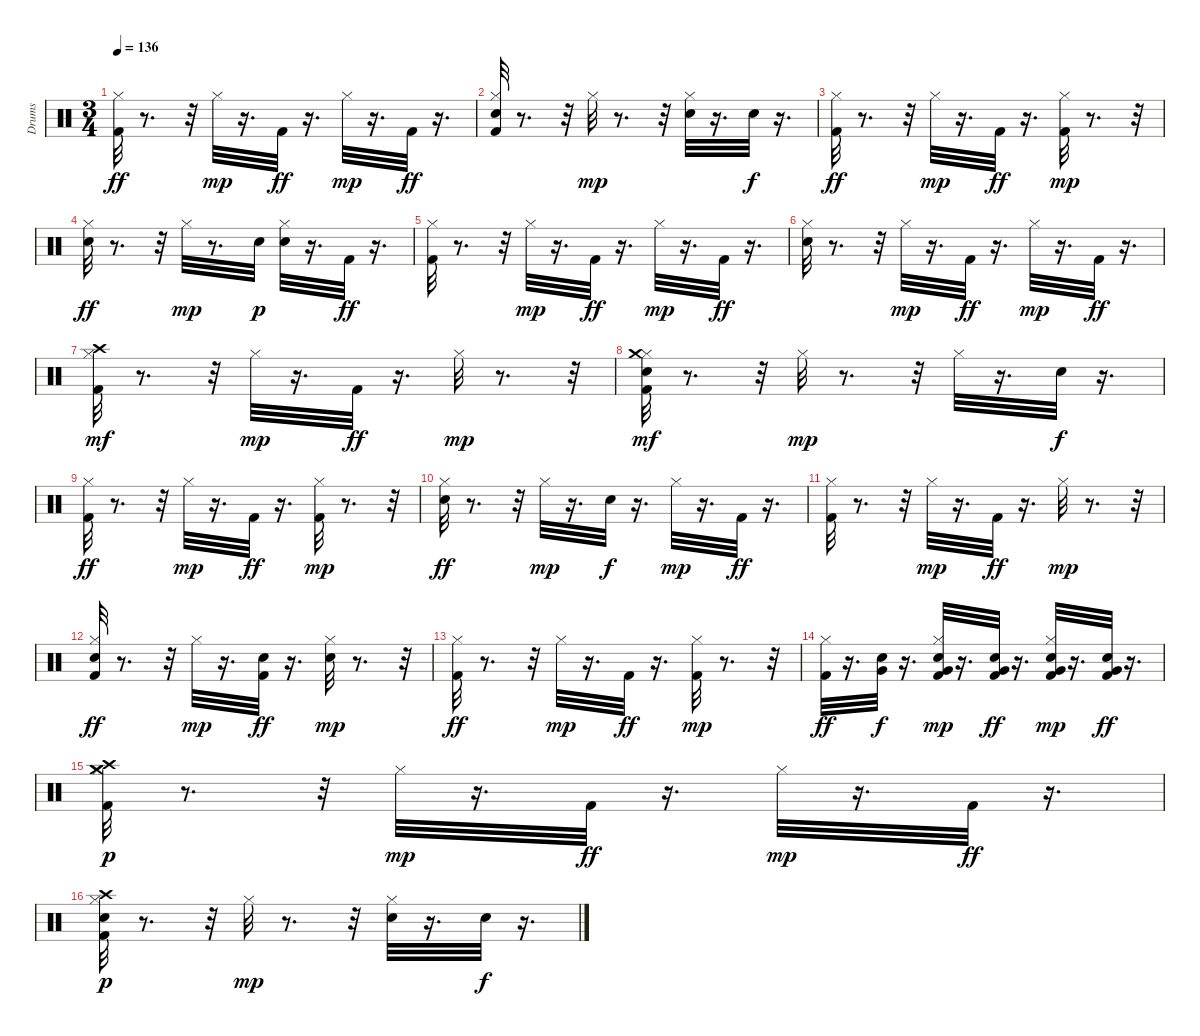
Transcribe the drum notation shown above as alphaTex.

\track ("Drums  " "Drums  ") {instrument percussion}
\staff {score}
\articulation defaults
\ts (3 4)
\tempo 136
\clef neutral
\ks c
("Kick (hit) 2" "Hi-Hat (closed)").32{dy ff} r.8{d} r.32 "Hi-Hat (closed)".32{dy mp} r.16{d} "Kick (hit) 2".32{dy ff} r.16{d} "Hi-Hat (closed)".32{dy mp} r.16{d} "Kick (hit) 2".32{dy ff} r.16{d} |
("Kick (hit) 2" "Snare (hit) 2" "Hi-Hat (closed)").32 r.8{d} r.32 "Hi-Hat (closed)".32{dy mp} r.8{d} r.32 ("Snare (hit) 2" "Hi-Hat (closed)").32 r.16{d} "Snare (hit) 2".32{dy f} r.16{d} |
("Kick (hit) 2" "Hi-Hat (closed)").32{dy ff} r.8{d} r.32 "Hi-Hat (closed)".32{dy mp} r.16{d} "Kick (hit) 2".32{dy ff} r.16{d} ("Kick (hit) 2" "Hi-Hat (closed)").32{dy mp} r.8{d} r.32 |
("Snare (hit) 2" "Hi-Hat (closed)").32{dy ff} r.8{d} r.32 "Hi-Hat (closed)".32{dy mp} r.8{d} "Snare (hit) 2".32{dy p} ("Hi-Hat (closed)" "Snare (hit) 2").32 r.16{d} "Kick (hit) 2".32{dy ff} r.16{d} |
("Kick (hit) 2" "Hi-Hat (closed)").32 r.8{d} r.32 "Hi-Hat (closed)".32{dy mp} r.16{d} "Kick (hit) 2".32{dy ff} r.16{d} "Hi-Hat (closed)".32{dy mp} r.16{d} "Kick (hit) 2".32{dy ff} r.16{d} |
("Snare (hit) 2" "Hi-Hat (closed)").32 r.8{d} r.32 "Hi-Hat (closed)".32{dy mp} r.16{d} "Kick (hit) 2".32{dy ff} r.16{d} "Hi-Hat (closed)".32{dy mp} r.16{d} "Kick (hit) 2".32{dy ff} r.16{d} |
("Kick (hit) 2" "Hi-Hat (closed)" "Crash high (hit)").32{dy mf} r.8{d} r.32 "Hi-Hat (closed)".32{dy mp} r.16{d} "Kick (hit) 2".32{dy ff} r.16{d} "Hi-Hat (closed)".32{dy mp} r.8{d} r.32 |
("Snare (hit) 2" "Kick (hit) 2" "Hi-Hat (closed)" "Crash medium (hit)").32{dy mf} r.8{d} r.32 "Hi-Hat (closed)".32{dy mp} r.8{d} r.32 "Hi-Hat (closed)".32 r.16{d} "Snare (hit) 2".32{dy f} r.16{d} |
("Kick (hit) 2" "Hi-Hat (closed)").32{dy ff} r.8{d} r.32 "Hi-Hat (closed)".32{dy mp} r.16{d} "Kick (hit) 2".32{dy ff} r.16{d} ("Kick (hit) 2" "Hi-Hat (closed)").32{dy mp} r.8{d} r.32 |
("Snare (hit) 2" "Hi-Hat (closed)").32{dy ff} r.8{d} r.32 "Hi-Hat (closed)".32{dy mp} r.16{d} "Snare (hit) 2".32{dy f} r.16{d} "Hi-Hat (closed)".32{dy mp} r.16{d} "Kick (hit) 2".32{dy ff} r.16{d} |
("Kick (hit) 2" "Hi-Hat (closed)").32 r.8{d} r.32 "Hi-Hat (closed)".32{dy mp} r.16{d} "Kick (hit) 2".32{dy ff} r.16{d} "Hi-Hat (closed)".32{dy mp} r.8{d} r.32 |
("Kick (hit) 2" "Snare (hit) 2" "Hi-Hat (closed)").32{dy ff} r.8{d} r.32 "Hi-Hat (closed)".32{dy mp} r.16{d} ("Kick (hit) 2" "Snare (hit) 2").32{dy ff} r.16{d} ("Snare (hit) 2" "Hi-Hat (closed)").32{dy mp} r.8{d} r.32 |
("Kick (hit) 2" "Hi-Hat (closed)").32{dy ff} r.8{d} r.32 "Hi-Hat (closed)".32{dy mp} r.16{d} "Kick (hit) 2".32{dy ff} r.16{d} ("Kick (hit) 2" "Hi-Hat (closed)").32{dy mp} r.8{d} r.32 |
("Kick (hit) 2" "Hi-Hat (closed)").32{dy ff} r.16{d} ("Snare (hit) 2" "Very Low Tom (hit)").32{dy f} r.16{d} ("Kick (hit) 2" "Snare (hit) 2" "Very Low Tom (hit)" "Hi-Hat (closed)").32{dy mp} r.16{d} ("Kick (hit) 2" "Snare (hit) 2" "Very Low Tom (hit)").32{dy ff} r.16{d} ("Kick (hit) 2" "Snare (hit) 2" "Very Low Tom (hit)" "Hi-Hat (closed)").32{dy mp} r.16{d} ("Kick (hit) 2" "Snare (hit) 2" "Very Low Tom (hit)").32{dy ff} r.16{d} |
("Kick (hit) 2" "Hi-Hat (closed)" "Crash high (hit)" "Crash medium (hit)").32{dy p} r.8{d} r.32 "Hi-Hat (closed)".32{dy mp} r.16{d} "Kick (hit) 2".32{dy ff} r.16{d} "Hi-Hat (closed)".32{dy mp} r.16{d} "Kick (hit) 2".32{dy ff} r.16{d} |
("Kick (hit) 2" "Snare (hit) 2" "Hi-Hat (closed)" "Crash high (hit)").32{dy p} r.8{d} r.32 "Hi-Hat (closed)".32{dy mp} r.8{d} r.32 ("Snare (hit) 2" "Hi-Hat (closed)").32 r.16{d} "Snare (hit) 2".32{dy f} r.16{d}
